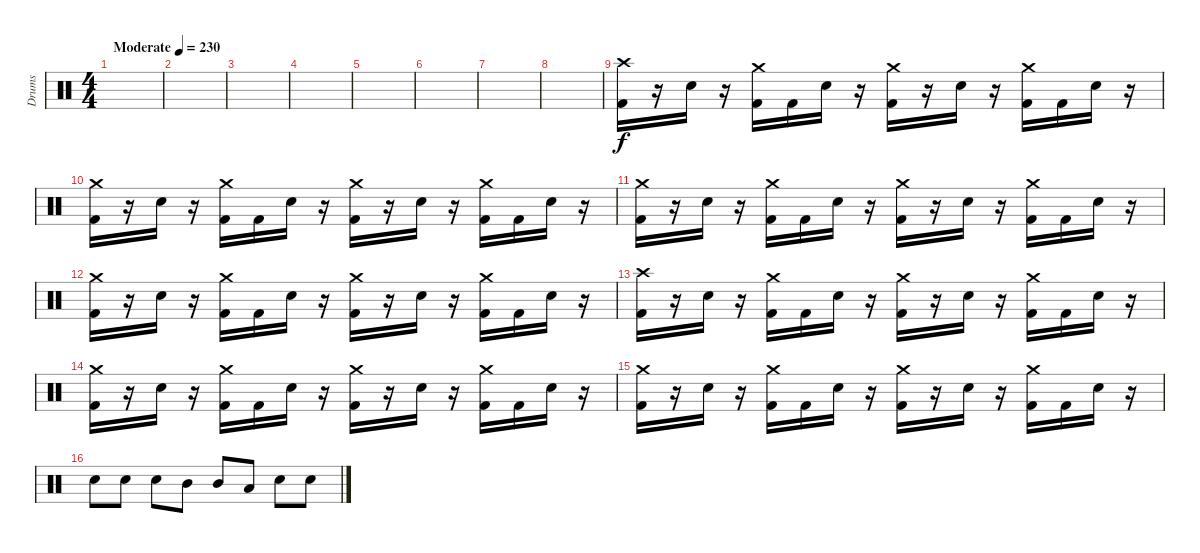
\track ("Drums" "Drums") {instrument percussion}
\staff {score}
\articulation defaults
\ts (4 4)
\tempo (230 "Moderate")
\clef neutral
\ks c
|
|
|
|
|
|
|
|
("Kick (hit) 2" "Crash high (hit)").16 r.16 "Electric Snare (hit)".16 r.16 ("Kick (hit) 2" "Crash medium (hit)").16 "Kick (hit) 2".16 "Electric Snare (hit)".16 r.16 ("Kick (hit) 2" "Crash medium (hit)").16 r.16 "Electric Snare (hit)".16 r.16 ("Kick (hit) 2" "Crash medium (hit)").16 "Kick (hit) 2".16 "Electric Snare (hit)".16 r.16 |
("Kick (hit) 2" "Crash medium (hit)").16 r.16 "Electric Snare (hit)".16 r.16 ("Kick (hit) 2" "Crash medium (hit)").16 "Kick (hit) 2".16 "Electric Snare (hit)".16 r.16 ("Kick (hit) 2" "Crash medium (hit)").16 r.16 "Electric Snare (hit)".16 r.16 ("Kick (hit) 2" "Crash medium (hit)").16 "Kick (hit) 2".16 "Electric Snare (hit)".16 r.16 |
("Kick (hit) 2" "Crash medium (hit)").16 r.16 "Electric Snare (hit)".16 r.16 ("Kick (hit) 2" "Crash medium (hit)").16 "Kick (hit) 2".16 "Electric Snare (hit)".16 r.16 ("Kick (hit) 2" "Crash medium (hit)").16 r.16 "Electric Snare (hit)".16 r.16 ("Kick (hit) 2" "Crash medium (hit)").16 "Kick (hit) 2".16 "Electric Snare (hit)".16 r.16 |
("Kick (hit) 2" "Crash medium (hit)").16 r.16 "Electric Snare (hit)".16 r.16 ("Kick (hit) 2" "Crash medium (hit)").16 "Kick (hit) 2".16 "Electric Snare (hit)".16 r.16 ("Kick (hit) 2" "Crash medium (hit)").16 r.16 "Electric Snare (hit)".16 r.16 ("Kick (hit) 2" "Crash medium (hit)").16 "Kick (hit) 2".16 "Electric Snare (hit)".16 r.16 |
("Kick (hit) 2" "Crash high (hit)").16 r.16 "Electric Snare (hit)".16 r.16 ("Kick (hit) 2" "Crash medium (hit)").16 "Kick (hit) 2".16 "Electric Snare (hit)".16 r.16 ("Kick (hit) 2" "Crash medium (hit)").16 r.16 "Electric Snare (hit)".16 r.16 ("Kick (hit) 2" "Crash medium (hit)").16 "Kick (hit) 2".16 "Electric Snare (hit)".16 r.16 |
("Kick (hit) 2" "Crash medium (hit)").16 r.16 "Electric Snare (hit)".16 r.16 ("Kick (hit) 2" "Crash medium (hit)").16 "Kick (hit) 2".16 "Electric Snare (hit)".16 r.16 ("Kick (hit) 2" "Crash medium (hit)").16 r.16 "Electric Snare (hit)".16 r.16 ("Kick (hit) 2" "Crash medium (hit)").16 "Kick (hit) 2".16 "Electric Snare (hit)".16 r.16 |
("Kick (hit) 2" "Crash medium (hit)").16 r.16 "Electric Snare (hit)".16 r.16 ("Kick (hit) 2" "Crash medium (hit)").16 "Kick (hit) 2".16 "Electric Snare (hit)".16 r.16 ("Kick (hit) 2" "Crash medium (hit)").16 r.16 "Electric Snare (hit)".16 r.16 ("Kick (hit) 2" "Crash medium (hit)").16 "Kick (hit) 2".16 "Electric Snare (hit)".16 r.16 |
"Electric Snare (hit)".8 "Electric Snare (hit)".8 "Electric Snare (hit)".8 "Mid Tom (hit)".8 "Mid Tom (hit)".8 "Low Tom (hit)".8 "Electric Snare (hit)".8 "Electric Snare (hit)".8
